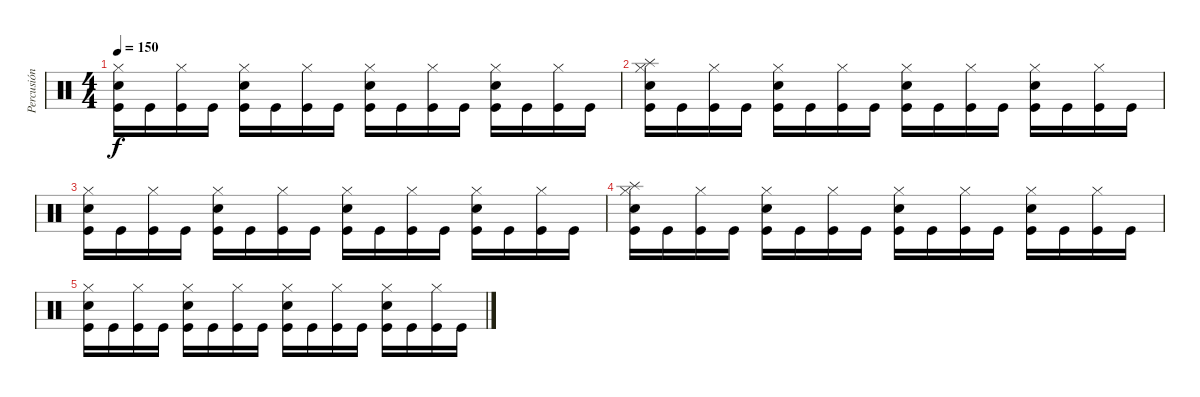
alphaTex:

\track ("Percusión" "Percusión") {instrument percussion}
\staff {score}
\articulation defaults
\ts (4 4)
\tempo 150
\clef neutral
\ks c
("Hi-Hat (closed)" "Snare (hit) 2" "Kick (hit)").16{dy f} "Kick (hit)".16 ("Hi-Hat (closed)" "Kick (hit)").16 "Kick (hit)".16 ("Hi-Hat (closed)" "Snare (hit) 2" "Kick (hit)").16 "Kick (hit)".16 ("Hi-Hat (closed)" "Kick (hit)").16 "Kick (hit)".16 ("Hi-Hat (closed)" "Snare (hit) 2" "Kick (hit)").16 "Kick (hit)".16 ("Hi-Hat (closed)" "Kick (hit)").16 "Kick (hit)".16 ("Hi-Hat (closed)" "Snare (hit) 2" "Kick (hit)").16 "Kick (hit)".16 ("Hi-Hat (closed)" "Kick (hit)").16 "Kick (hit)".16 |
("Hi-Hat (closed)" "Splash (hit)" "Snare (hit) 2" "Kick (hit)").16 "Kick (hit)".16 ("Hi-Hat (closed)" "Kick (hit)").16 "Kick (hit)".16 ("Hi-Hat (closed)" "Snare (hit) 2" "Kick (hit)").16 "Kick (hit)".16 ("Hi-Hat (closed)" "Kick (hit)").16 "Kick (hit)".16 ("Hi-Hat (closed)" "Snare (hit) 2" "Kick (hit)").16 "Kick (hit)".16 ("Hi-Hat (closed)" "Kick (hit)").16 "Kick (hit)".16 ("Hi-Hat (closed)" "Snare (hit) 2" "Kick (hit)").16 "Kick (hit)".16 ("Hi-Hat (closed)" "Kick (hit)").16 "Kick (hit)".16 |
("Hi-Hat (closed)" "Snare (hit) 2" "Kick (hit)").16 "Kick (hit)".16 ("Hi-Hat (closed)" "Kick (hit)").16 "Kick (hit)".16 ("Hi-Hat (closed)" "Snare (hit) 2" "Kick (hit)").16 "Kick (hit)".16 ("Hi-Hat (closed)" "Kick (hit)").16 "Kick (hit)".16 ("Hi-Hat (closed)" "Snare (hit) 2" "Kick (hit)").16 "Kick (hit)".16 ("Hi-Hat (closed)" "Kick (hit)").16 "Kick (hit)".16 ("Hi-Hat (closed)" "Snare (hit) 2" "Kick (hit)").16 "Kick (hit)".16 ("Hi-Hat (closed)" "Kick (hit)").16 "Kick (hit)".16 |
("Hi-Hat (closed)" "Splash (hit)" "Snare (hit) 2" "Kick (hit)").16 "Kick (hit)".16 ("Hi-Hat (closed)" "Kick (hit)").16 "Kick (hit)".16 ("Hi-Hat (closed)" "Snare (hit) 2" "Kick (hit)").16 "Kick (hit)".16 ("Hi-Hat (closed)" "Kick (hit)").16 "Kick (hit)".16 ("Hi-Hat (closed)" "Snare (hit) 2" "Kick (hit)").16 "Kick (hit)".16 ("Hi-Hat (closed)" "Kick (hit)").16 "Kick (hit)".16 ("Hi-Hat (closed)" "Snare (hit) 2" "Kick (hit)").16 "Kick (hit)".16 ("Hi-Hat (closed)" "Kick (hit)").16 "Kick (hit)".16 |
("Hi-Hat (closed)" "Snare (hit) 2" "Kick (hit)").16 "Kick (hit)".16 ("Hi-Hat (closed)" "Kick (hit)").16 "Kick (hit)".16 ("Hi-Hat (closed)" "Snare (hit) 2" "Kick (hit)").16 "Kick (hit)".16 ("Hi-Hat (closed)" "Kick (hit)").16 "Kick (hit)".16 ("Hi-Hat (closed)" "Snare (hit) 2" "Kick (hit)").16 "Kick (hit)".16 ("Hi-Hat (closed)" "Kick (hit)").16 "Kick (hit)".16 ("Hi-Hat (closed)" "Snare (hit) 2" "Kick (hit)").16 "Kick (hit)".16 ("Hi-Hat (closed)" "Kick (hit)").16 "Kick (hit)".16
